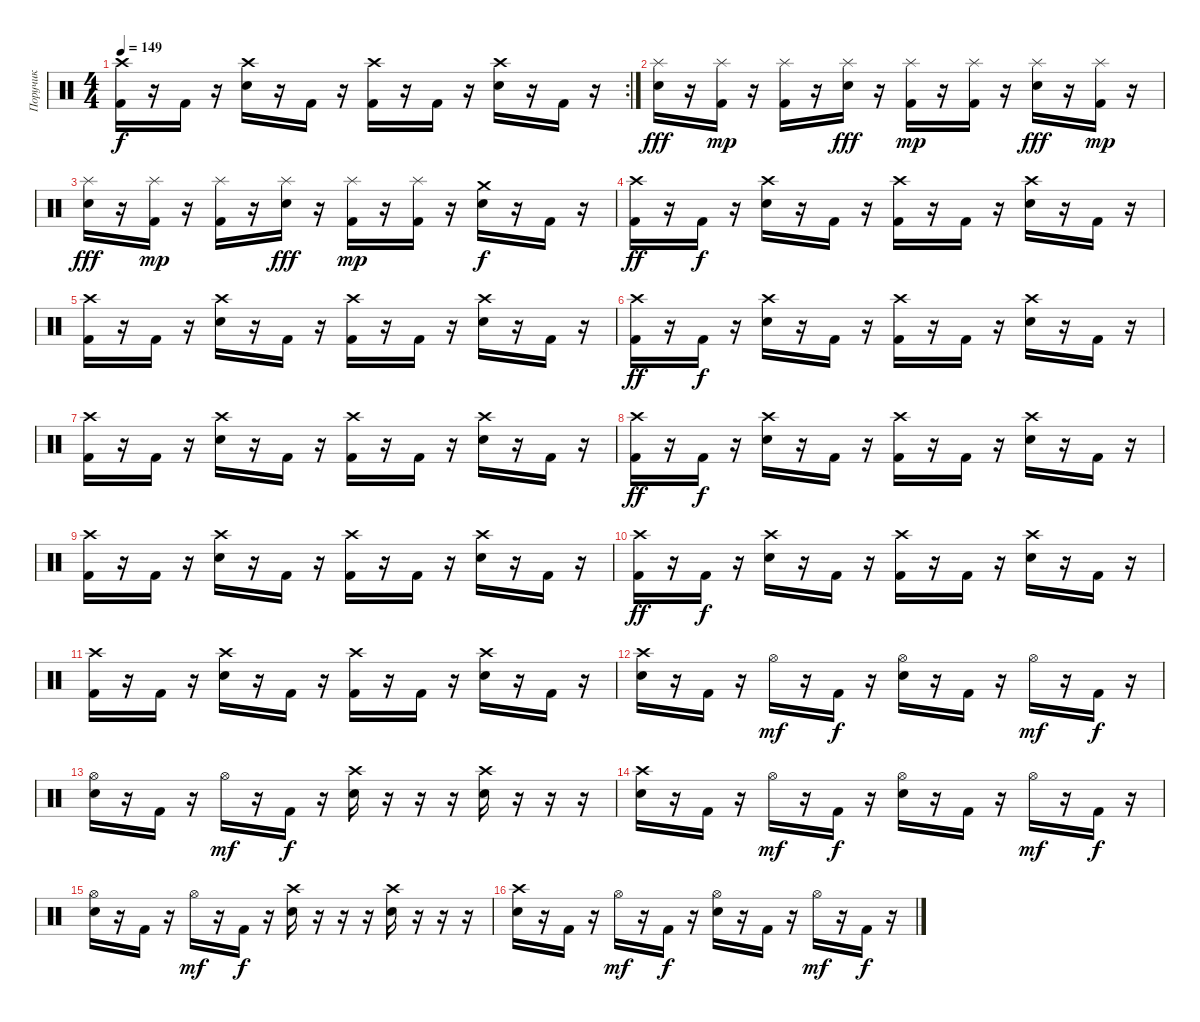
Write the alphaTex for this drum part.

\track ("Поручик" "Поручик") {instrument percussion}
\staff {score}
\articulation defaults
\rc 2
\ts (4 4)
\tempo 149
\clef neutral
\ks c
("Crash high (hit)" "Kick (hit) 2").16{dy f} r.16 "Kick (hit) 2".16 r.16 ("Crash high (hit)" "Snare (hit) 2").16 r.16 "Kick (hit) 2".16 r.16 ("Crash high (hit)" "Kick (hit) 2").16 r.16 "Kick (hit) 2".16 r.16 ("Crash high (hit)" "Snare (hit) 2").16 r.16 "Kick (hit) 2".16 r.16 |
("Splash (hit)" "Snare (hit) 2").16{dy fff} r.16 ("Splash (hit)" "Kick (hit) 2").16{dy mp} r.16 ("Splash (hit)" "Kick (hit) 2").16 r.16 ("Splash (hit)" "Snare (hit) 2").16{dy fff} r.16 ("Splash (hit)" "Kick (hit) 2").16{dy mp} r.16 ("Splash (hit)" "Kick (hit) 2").16 r.16 ("Splash (hit)" "Snare (hit) 2").16{dy fff} r.16 ("Splash (hit)" "Kick (hit) 2").16{dy mp} r.16 |
("Splash (hit)" "Snare (hit) 2").16{dy fff} r.16 ("Splash (hit)" "Kick (hit) 2").16{dy mp} r.16 ("Splash (hit)" "Kick (hit) 2").16 r.16 ("Splash (hit)" "Snare (hit) 2").16{dy fff} r.16 ("Splash (hit)" "Kick (hit) 2").16{dy mp} r.16 ("Splash (hit)" "Kick (hit) 2").16 r.16 ("Crash medium (hit)" "Snare (hit) 2").16{dy f} r.16 "Kick (hit) 2".16 r.16 |
("Crash high (hit)" "Kick (hit) 2").16{dy ff} r.16 "Kick (hit) 2".16{dy f} r.16 ("Crash high (hit)" "Snare (hit) 2").16 r.16 "Kick (hit) 2".16 r.16 ("Crash high (hit)" "Kick (hit) 2").16 r.16 "Kick (hit) 2".16 r.16 ("Crash high (hit)" "Snare (hit) 2").16 r.16 "Kick (hit) 2".16 r.16 |
("Crash high (hit)" "Kick (hit) 2").16 r.16 "Kick (hit) 2".16 r.16 ("Crash high (hit)" "Snare (hit) 2").16 r.16 "Kick (hit) 2".16 r.16 ("Crash high (hit)" "Kick (hit) 2").16 r.16 "Kick (hit) 2".16 r.16 ("Crash high (hit)" "Snare (hit) 2").16 r.16 "Kick (hit) 2".16 r.16 |
("Crash high (hit)" "Kick (hit) 2").16{dy ff} r.16 "Kick (hit) 2".16{dy f} r.16 ("Crash high (hit)" "Snare (hit) 2").16 r.16 "Kick (hit) 2".16 r.16 ("Crash high (hit)" "Kick (hit) 2").16 r.16 "Kick (hit) 2".16 r.16 ("Crash high (hit)" "Snare (hit) 2").16 r.16 "Kick (hit) 2".16 r.16 |
("Crash high (hit)" "Kick (hit) 2").16 r.16 "Kick (hit) 2".16 r.16 ("Crash high (hit)" "Snare (hit) 2").16 r.16 "Kick (hit) 2".16 r.16 ("Crash high (hit)" "Kick (hit) 2").16 r.16 "Kick (hit) 2".16 r.16 ("Crash high (hit)" "Snare (hit) 2").16 r.16 "Kick (hit) 2".16 r.16 |
("Crash high (hit)" "Kick (hit) 2").16{dy ff} r.16 "Kick (hit) 2".16{dy f} r.16 ("Crash high (hit)" "Snare (hit) 2").16 r.16 "Kick (hit) 2".16 r.16 ("Crash high (hit)" "Kick (hit) 2").16 r.16 "Kick (hit) 2".16 r.16 ("Crash high (hit)" "Snare (hit) 2").16 r.16 "Kick (hit) 2".16 r.16 |
("Crash high (hit)" "Kick (hit) 2").16 r.16 "Kick (hit) 2".16 r.16 ("Crash high (hit)" "Snare (hit) 2").16 r.16 "Kick (hit) 2".16 r.16 ("Crash high (hit)" "Kick (hit) 2").16 r.16 "Kick (hit) 2".16 r.16 ("Crash high (hit)" "Snare (hit) 2").16 r.16 "Kick (hit) 2".16 r.16 |
("Crash high (hit)" "Kick (hit) 2").16{dy ff} r.16 "Kick (hit) 2".16{dy f} r.16 ("Crash high (hit)" "Snare (hit) 2").16 r.16 "Kick (hit) 2".16 r.16 ("Crash high (hit)" "Kick (hit) 2").16 r.16 "Kick (hit) 2".16 r.16 ("Crash high (hit)" "Snare (hit) 2").16 r.16 "Kick (hit) 2".16 r.16 |
("Crash high (hit)" "Kick (hit) 2").16 r.16 "Kick (hit) 2".16 r.16 ("Crash high (hit)" "Snare (hit) 2").16 r.16 "Kick (hit) 2".16 r.16 ("Crash high (hit)" "Kick (hit) 2").16 r.16 "Kick (hit) 2".16 r.16 ("Crash high (hit)" "Snare (hit) 2").16 r.16 "Kick (hit) 2".16 r.16 |
("Crash high (hit)" "Snare (hit) 2").16 r.16 "Kick (hit) 2".16 r.16 "Hi-Hat (open)".16{dy mf} r.16 "Kick (hit) 2".16{dy f} r.16 ("Hi-Hat (open)" "Snare (hit) 2").16 r.16 "Kick (hit) 2".16 r.16 "Hi-Hat (open)".16{dy mf} r.16 "Kick (hit) 2".16{dy f} r.16 |
("Hi-Hat (open)" "Snare (hit) 2").16 r.16 "Kick (hit) 2".16 r.16 "Hi-Hat (open)".16{dy mf} r.16 "Kick (hit) 2".16{dy f} r.16 ("Crash high (hit)" "Snare (hit) 2").16 r.16 r.16 r.16 ("Crash high (hit)" "Snare (hit) 2").16 r.16 r.16 r.16 |
("Crash high (hit)" "Snare (hit) 2").16 r.16 "Kick (hit) 2".16 r.16 "Hi-Hat (open)".16{dy mf} r.16 "Kick (hit) 2".16{dy f} r.16 ("Hi-Hat (open)" "Snare (hit) 2").16 r.16 "Kick (hit) 2".16 r.16 "Hi-Hat (open)".16{dy mf} r.16 "Kick (hit) 2".16{dy f} r.16 |
("Hi-Hat (open)" "Snare (hit) 2").16 r.16 "Kick (hit) 2".16 r.16 "Hi-Hat (open)".16{dy mf} r.16 "Kick (hit) 2".16{dy f} r.16 ("Crash high (hit)" "Snare (hit) 2").16 r.16 r.16 r.16 ("Crash high (hit)" "Snare (hit) 2").16 r.16 r.16 r.16 |
("Crash high (hit)" "Snare (hit) 2").16 r.16 "Kick (hit) 2".16 r.16 "Hi-Hat (open)".16{dy mf} r.16 "Kick (hit) 2".16{dy f} r.16 ("Hi-Hat (open)" "Snare (hit) 2").16 r.16 "Kick (hit) 2".16 r.16 "Hi-Hat (open)".16{dy mf} r.16 "Kick (hit) 2".16{dy f} r.16
